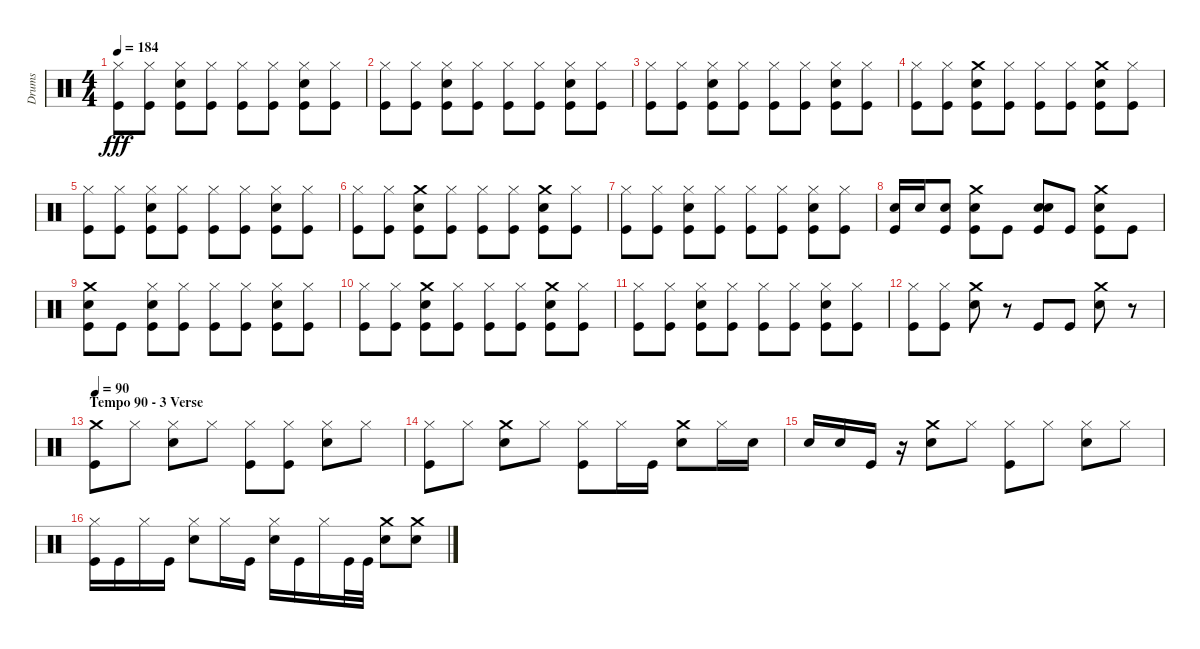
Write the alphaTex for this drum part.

\track ("Drums" "Drums") {instrument percussion}
\staff {score}
\articulation defaults
\ts (4 4)
\tempo 184
\clef neutral
\ks c
("Kick (hit)" "Hi-Hat (closed)").8{dy fff} ("Kick (hit)" "Hi-Hat (closed)").8 ("Snare (hit) 2" "Kick (hit)" "Hi-Hat (closed)").8 ("Kick (hit)" "Hi-Hat (closed)").8 ("Kick (hit)" "Hi-Hat (closed)").8 ("Kick (hit)" "Hi-Hat (closed)").8 ("Snare (hit) 2" "Kick (hit)" "Hi-Hat (closed)").8 ("Kick (hit)" "Hi-Hat (closed)").8 |
("Kick (hit)" "Hi-Hat (closed)").8 ("Kick (hit)" "Hi-Hat (closed)").8 ("Snare (hit) 2" "Kick (hit)" "Hi-Hat (closed)").8 ("Kick (hit)" "Hi-Hat (closed)").8 ("Kick (hit)" "Hi-Hat (closed)").8 ("Kick (hit)" "Hi-Hat (closed)").8 ("Snare (hit) 2" "Kick (hit)" "Hi-Hat (closed)").8 ("Kick (hit)" "Hi-Hat (closed)").8 |
("Kick (hit)" "Hi-Hat (closed)").8 ("Kick (hit)" "Hi-Hat (closed)").8 ("Snare (hit) 2" "Kick (hit)" "Hi-Hat (closed)").8 ("Kick (hit)" "Hi-Hat (closed)").8 ("Kick (hit)" "Hi-Hat (closed)").8 ("Kick (hit)" "Hi-Hat (closed)").8 ("Snare (hit) 2" "Kick (hit)" "Hi-Hat (closed)").8 ("Kick (hit)" "Hi-Hat (closed)").8 |
("Kick (hit)" "Hi-Hat (closed)").8 ("Kick (hit)" "Hi-Hat (closed)").8 ("Crash medium (hit)" "Snare (hit) 2" "Kick (hit)").8 ("Kick (hit)" "Hi-Hat (closed)").8 ("Kick (hit)" "Hi-Hat (closed)").8 ("Kick (hit)" "Hi-Hat (closed)").8 ("Crash medium (hit)" "Snare (hit) 2" "Kick (hit)").8 ("Kick (hit)" "Hi-Hat (closed)").8 |
("Kick (hit)" "Hi-Hat (closed)").8 ("Kick (hit)" "Hi-Hat (closed)").8 ("Snare (hit) 2" "Kick (hit)" "Hi-Hat (closed)").8 ("Kick (hit)" "Hi-Hat (closed)").8 ("Kick (hit)" "Hi-Hat (closed)").8 ("Kick (hit)" "Hi-Hat (closed)").8 ("Snare (hit) 2" "Kick (hit)" "Hi-Hat (closed)").8 ("Kick (hit)" "Hi-Hat (closed)").8 |
("Kick (hit)" "Hi-Hat (closed)").8 ("Kick (hit)" "Hi-Hat (closed)").8 ("Crash medium (hit)" "Snare (hit) 2" "Kick (hit)").8 ("Kick (hit)" "Hi-Hat (closed)").8 ("Kick (hit)" "Hi-Hat (closed)").8 ("Kick (hit)" "Hi-Hat (closed)").8 ("Crash medium (hit)" "Snare (hit) 2" "Kick (hit)").8 ("Kick (hit)" "Hi-Hat (closed)").8 |
("Kick (hit)" "Hi-Hat (closed)").8 ("Kick (hit)" "Hi-Hat (closed)").8 ("Snare (hit) 2" "Kick (hit)" "Hi-Hat (closed)").8 ("Kick (hit)" "Hi-Hat (closed)").8 ("Kick (hit)" "Hi-Hat (closed)").8 ("Kick (hit)" "Hi-Hat (closed)").8 ("Snare (hit) 2" "Kick (hit)" "Hi-Hat (closed)").8 ("Kick (hit)" "Hi-Hat (closed)").8 |
("Snare (hit) 2" "Kick (hit)").16 "Snare (hit) 2".16 ("Snare (hit) 2" "Kick (hit)").8 ("Crash medium (hit)" "Snare (hit) 2" "Kick (hit)").8 "Kick (hit)".8 ("Snare (hit) 2" "Kick (hit)" "Snare (hit) 2").8 "Kick (hit)".8 ("Crash medium (hit)" "Snare (hit) 2" "Kick (hit)").8 "Kick (hit)".8 |
("Crash medium (hit)" "Snare (hit) 2" "Kick (hit)").8 "Kick (hit)".8 ("Snare (hit) 2" "Kick (hit)" "Hi-Hat (closed)").8 ("Kick (hit)" "Hi-Hat (closed)").8 ("Kick (hit)" "Hi-Hat (closed)").8 ("Kick (hit)" "Hi-Hat (closed)").8 ("Snare (hit) 2" "Kick (hit)" "Hi-Hat (closed)").8 ("Kick (hit)" "Hi-Hat (closed)").8 |
("Kick (hit)" "Hi-Hat (closed)").8 ("Kick (hit)" "Hi-Hat (closed)").8 ("Crash medium (hit)" "Snare (hit) 2" "Kick (hit)").8 ("Kick (hit)" "Hi-Hat (closed)").8 ("Kick (hit)" "Hi-Hat (closed)").8 ("Kick (hit)" "Hi-Hat (closed)").8 ("Crash medium (hit)" "Snare (hit) 2" "Kick (hit)").8 ("Kick (hit)" "Hi-Hat (closed)").8 |
("Kick (hit)" "Hi-Hat (closed)").8 ("Kick (hit)" "Hi-Hat (closed)").8 ("Snare (hit) 2" "Kick (hit)" "Hi-Hat (closed)").8 ("Kick (hit)" "Hi-Hat (closed)").8 ("Kick (hit)" "Hi-Hat (closed)").8 ("Kick (hit)" "Hi-Hat (closed)").8 ("Snare (hit) 2" "Kick (hit)" "Hi-Hat (closed)").8 ("Kick (hit)" "Hi-Hat (closed)").8 |
("Kick (hit)" "Hi-Hat (closed)").8 ("Kick (hit)" "Hi-Hat (closed)").8 ("Crash medium (hit)" "Snare (hit) 2").8 r.8 "Kick (hit)".8 "Kick (hit)".8 ("Crash medium (hit)" "Snare (hit) 2").8 r.8 |
\section ("" "Tempo 90 - 3 Verse")
\tempo 90
("Crash medium (hit)" "Kick (hit)").8 "Hi-Hat (closed)".8 ("Snare (hit) 2" "Hi-Hat (closed)").8 "Hi-Hat (closed)".8 ("Kick (hit)" "Hi-Hat (closed)").8 ("Kick (hit)" "Hi-Hat (closed)").8 ("Snare (hit) 2" "Hi-Hat (closed)").8 "Hi-Hat (closed)".8 |
("Hi-Hat (closed)" "Kick (hit)").8 "Hi-Hat (closed)".8 ("Crash medium (hit)" "Snare (hit) 2").8 "Hi-Hat (closed)".8 ("Kick (hit)" "Hi-Hat (closed)").8 "Hi-Hat (closed)".16 "Kick (hit)".16 ("Crash medium (hit)" "Snare (hit) 2").8 "Hi-Hat (closed)".16 "Snare (hit) 2".16 |
"Snare (hit) 2".16 "Snare (hit) 2".16 "Kick (hit)".16 r.16 ("Crash medium (hit)" "Snare (hit) 2").8 "Hi-Hat (closed)".8 ("Hi-Hat (closed)" "Kick (hit)").8 "Hi-Hat (closed)".8 ("Snare (hit) 2" "Hi-Hat (closed)").8 "Hi-Hat (closed)".8 |
("Kick (hit)" "Hi-Hat (closed)").16 "Kick (hit)".16 "Hi-Hat (closed)".16 "Kick (hit)".16 ("Snare (hit) 2" "Hi-Hat (closed)").8 "Hi-Hat (closed)".16 "Kick (hit)".16 ("Hi-Hat (closed)" "Snare (hit) 2").16 "Kick (hit)".16 "Hi-Hat (closed)".16 "Kick (hit)".32 "Kick (hit)".32 ("Crash medium (hit)" "Snare (hit) 2").8 ("Snare (hit) 2" "Crash medium (hit)").8
